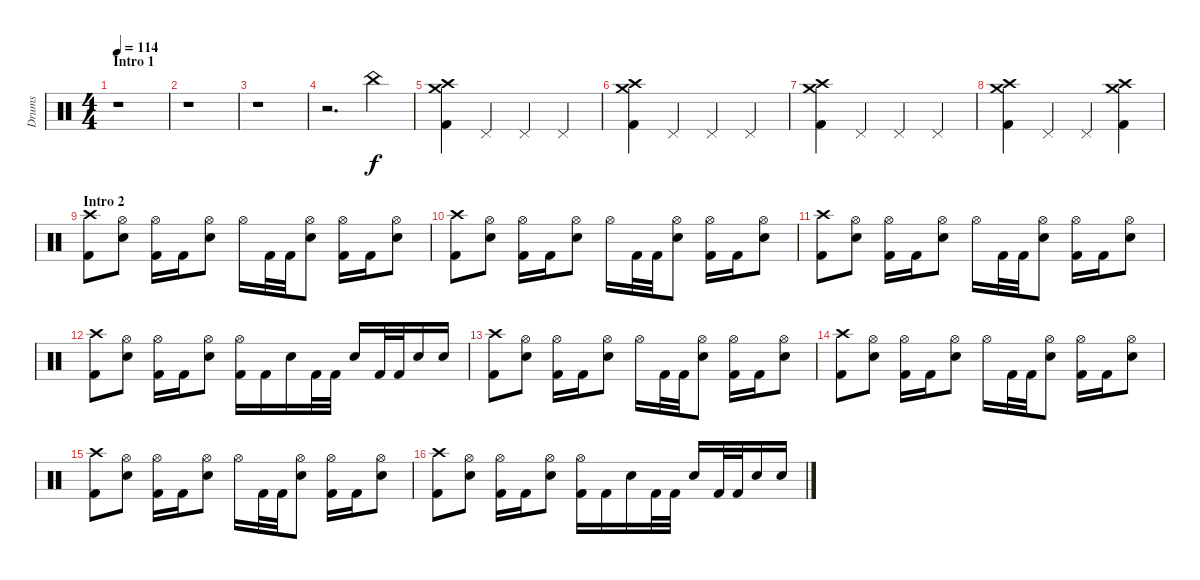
\track ("Drums" "Drums") {instrument percussion}
\staff {score}
\articulation defaults
\ts (4 4)
\section ("" "Intro 1")
\tempo 114
\clef neutral
\ks c
r.1{dy f} |
r.1 |
r.1 |
r.2{d} "China (hit)".4 |
("Crash high (hit)" "Crash medium (hit)" "Kick (hit) 2").4 "Pedal Hi-Hat (hit)".4 "Pedal Hi-Hat (hit)".4 "Pedal Hi-Hat (hit)".4 |
("Crash high (hit)" "Crash medium (hit)" "Kick (hit) 2").4 "Pedal Hi-Hat (hit)".4 "Pedal Hi-Hat (hit)".4 "Pedal Hi-Hat (hit)".4 |
("Crash high (hit)" "Crash medium (hit)" "Kick (hit) 2").4 "Pedal Hi-Hat (hit)".4 "Pedal Hi-Hat (hit)".4 "Pedal Hi-Hat (hit)".4 |
("Crash high (hit)" "Crash medium (hit)" "Kick (hit) 2").4 "Pedal Hi-Hat (hit)".4 "Pedal Hi-Hat (hit)".4 ("Crash high (hit)" "Crash medium (hit)" "Kick (hit) 2").4 |
\section ("" "Intro 2")
("Crash high (hit)" "Kick (hit) 2").8 ("Hi-Hat (open)" "Electric Snare (hit)").8 ("Hi-Hat (open)" "Kick (hit) 2").16 "Kick (hit) 2".16 ("Hi-Hat (open)" "Electric Snare (hit)").8 "Hi-Hat (open)".16 "Kick (hit) 2".32 "Kick (hit) 2".32 ("Hi-Hat (open)" "Electric Snare (hit)").8 ("Hi-Hat (open)" "Kick (hit) 2").16 "Kick (hit) 2".16 ("Hi-Hat (open)" "Electric Snare (hit)").8 |
("Crash high (hit)" "Kick (hit) 2").8 ("Hi-Hat (open)" "Electric Snare (hit)").8 ("Hi-Hat (open)" "Kick (hit) 2").16 "Kick (hit) 2".16 ("Hi-Hat (open)" "Electric Snare (hit)").8 "Hi-Hat (open)".16 "Kick (hit) 2".32 "Kick (hit) 2".32 ("Hi-Hat (open)" "Electric Snare (hit)").8 ("Hi-Hat (open)" "Kick (hit) 2").16 "Kick (hit) 2".16 ("Hi-Hat (open)" "Electric Snare (hit)").8 |
("Crash high (hit)" "Kick (hit) 2").8 ("Hi-Hat (open)" "Electric Snare (hit)").8 ("Hi-Hat (open)" "Kick (hit) 2").16 "Kick (hit) 2".16 ("Hi-Hat (open)" "Electric Snare (hit)").8 "Hi-Hat (open)".16 "Kick (hit) 2".32 "Kick (hit) 2".32 ("Hi-Hat (open)" "Electric Snare (hit)").8 ("Hi-Hat (open)" "Kick (hit) 2").16 "Kick (hit) 2".16 ("Hi-Hat (open)" "Electric Snare (hit)").8 |
("Crash high (hit)" "Kick (hit) 2").8 ("Hi-Hat (open)" "Electric Snare (hit)").8 ("Hi-Hat (open)" "Kick (hit) 2").16 "Kick (hit) 2".16 ("Hi-Hat (open)" "Electric Snare (hit)").8 ("Hi-Hat (open)" "Kick (hit) 2").16 "Kick (hit) 2".16 "Electric Snare (hit)".16 "Kick (hit) 2".32 "Kick (hit) 2".32 "Electric Snare (hit)".16 "Kick (hit) 2".32 "Kick (hit) 2".32 "Electric Snare (hit)".16 "Electric Snare (hit)".16 |
("Crash high (hit)" "Kick (hit) 2").8 ("Hi-Hat (open)" "Electric Snare (hit)").8 ("Hi-Hat (open)" "Kick (hit) 2").16 "Kick (hit) 2".16 ("Hi-Hat (open)" "Electric Snare (hit)").8 "Hi-Hat (open)".16 "Kick (hit) 2".32 "Kick (hit) 2".32 ("Hi-Hat (open)" "Electric Snare (hit)").8 ("Hi-Hat (open)" "Kick (hit) 2").16 "Kick (hit) 2".16 ("Hi-Hat (open)" "Electric Snare (hit)").8 |
("Crash high (hit)" "Kick (hit) 2").8 ("Hi-Hat (open)" "Electric Snare (hit)").8 ("Hi-Hat (open)" "Kick (hit) 2").16 "Kick (hit) 2".16 ("Hi-Hat (open)" "Electric Snare (hit)").8 "Hi-Hat (open)".16 "Kick (hit) 2".32 "Kick (hit) 2".32 ("Hi-Hat (open)" "Electric Snare (hit)").8 ("Hi-Hat (open)" "Kick (hit) 2").16 "Kick (hit) 2".16 ("Hi-Hat (open)" "Electric Snare (hit)").8 |
("Crash high (hit)" "Kick (hit) 2").8 ("Hi-Hat (open)" "Electric Snare (hit)").8 ("Hi-Hat (open)" "Kick (hit) 2").16 "Kick (hit) 2".16 ("Hi-Hat (open)" "Electric Snare (hit)").8 "Hi-Hat (open)".16 "Kick (hit) 2".32 "Kick (hit) 2".32 ("Hi-Hat (open)" "Electric Snare (hit)").8 ("Hi-Hat (open)" "Kick (hit) 2").16 "Kick (hit) 2".16 ("Hi-Hat (open)" "Electric Snare (hit)").8 |
("Crash high (hit)" "Kick (hit) 2").8 ("Hi-Hat (open)" "Electric Snare (hit)").8 ("Hi-Hat (open)" "Kick (hit) 2").16 "Kick (hit) 2".16 ("Hi-Hat (open)" "Electric Snare (hit)").8 ("Hi-Hat (open)" "Kick (hit) 2").16 "Kick (hit) 2".16 "Electric Snare (hit)".16 "Kick (hit) 2".32 "Kick (hit) 2".32 "Electric Snare (hit)".16 "Kick (hit) 2".32 "Kick (hit) 2".32 "Electric Snare (hit)".16 "Electric Snare (hit)".16
